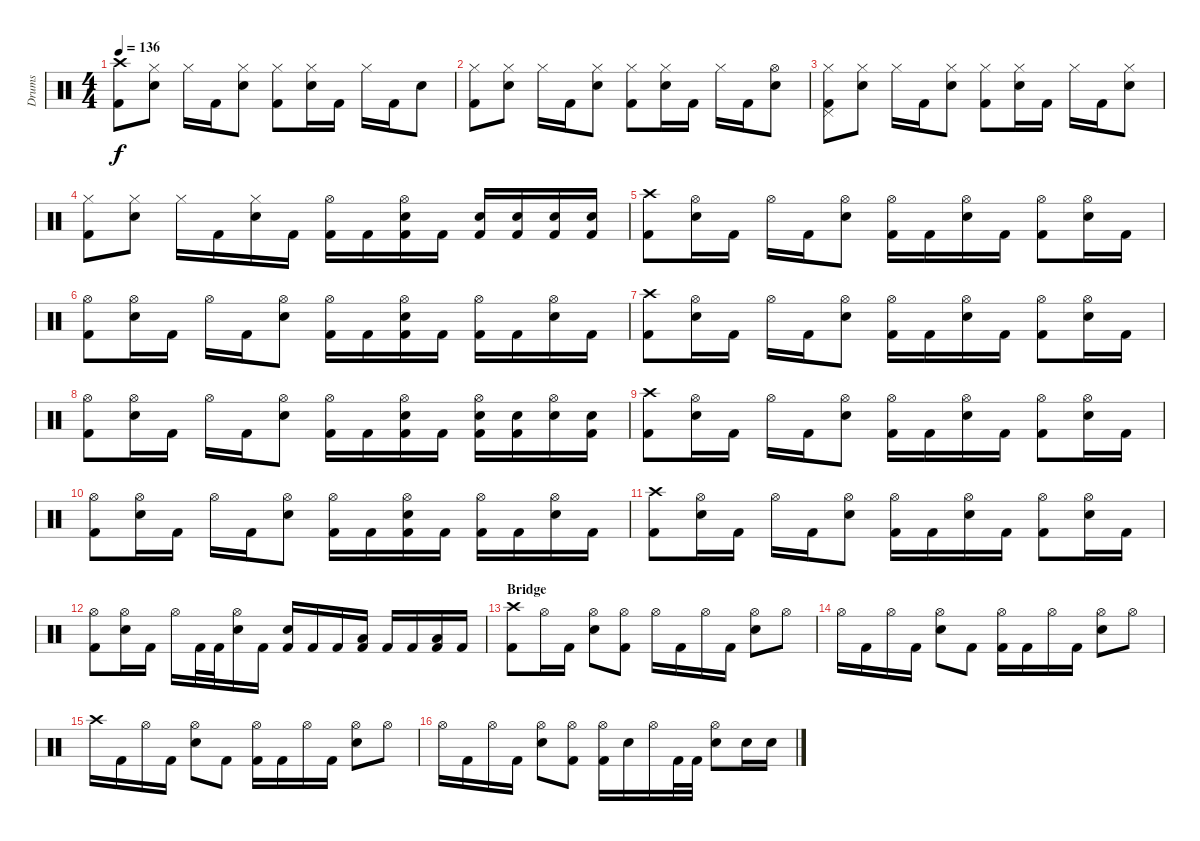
\track ("Drums" "Drums") {instrument percussion}
\staff {score}
\articulation defaults
\ts (4 4)
\tempo 136
\clef neutral
\ks c
("Crash high (hit)" "Kick (hit) 2").8{dy f} ("Hi-Hat (closed)" "Snare (hit) 2").8 "Hi-Hat (closed)".16 "Kick (hit) 2".16 ("Hi-Hat (closed)" "Snare (hit) 2").8 ("Hi-Hat (closed)" "Kick (hit) 2").8 ("Hi-Hat (closed)" "Snare (hit) 2").16 "Kick (hit) 2".16 "Hi-Hat (closed)".16 "Kick (hit) 2".16 "Snare (hit) 2".8 |
("Hi-Hat (closed)" "Kick (hit) 2").8 ("Hi-Hat (closed)" "Snare (hit) 2").8 "Hi-Hat (closed)".16 "Kick (hit) 2".16 ("Hi-Hat (closed)" "Snare (hit) 2").8 ("Hi-Hat (closed)" "Kick (hit) 2").8 ("Hi-Hat (closed)" "Snare (hit) 2").16 "Kick (hit) 2".16 "Hi-Hat (closed)".16 "Kick (hit) 2".16 ("Hi-Hat (open)" "Snare (hit) 2").8 |
("Hi-Hat (closed)" "Pedal Hi-Hat (hit)" "Kick (hit) 2").8 ("Hi-Hat (closed)" "Snare (hit) 2").8 "Hi-Hat (closed)".16 "Kick (hit) 2".16 ("Hi-Hat (closed)" "Snare (hit) 2").8 ("Hi-Hat (closed)" "Kick (hit) 2").8 ("Hi-Hat (closed)" "Snare (hit) 2").16 "Kick (hit) 2".16 "Hi-Hat (closed)".16 "Kick (hit) 2".16 ("Hi-Hat (closed)" "Snare (hit) 2").8 |
("Hi-Hat (closed)" "Kick (hit) 2").8 ("Hi-Hat (closed)" "Snare (hit) 2").8 "Hi-Hat (closed)".16 "Kick (hit) 2".16 ("Hi-Hat (closed)" "Snare (hit) 2").16 "Kick (hit) 2".16 ("Hi-Hat (open)" "Kick (hit) 2").16 "Kick (hit) 2".16 ("Hi-Hat (open)" "Snare (hit) 2" "Kick (hit) 2").16 "Kick (hit) 2".16 ("Snare (hit) 2" "Kick (hit) 2").16 ("Snare (hit) 2" "Kick (hit) 2").16 ("Snare (hit) 2" "Kick (hit) 2").16 ("Snare (hit) 2" "Kick (hit) 2").16 |
("Crash high (hit)" "Kick (hit) 2").8 ("Hi-Hat (open)" "Snare (hit) 2").16 "Kick (hit) 2".16 "Hi-Hat (open)".16 "Kick (hit) 2".16 ("Hi-Hat (open)" "Snare (hit) 2").8 ("Hi-Hat (open)" "Kick (hit) 2").16 "Kick (hit) 2".16 ("Hi-Hat (open)" "Snare (hit) 2").16 "Kick (hit) 2".16 ("Hi-Hat (open)" "Kick (hit) 2").8 ("Hi-Hat (open)" "Snare (hit) 2").16 "Kick (hit) 2".16 |
("Hi-Hat (open)" "Kick (hit) 2").8 ("Hi-Hat (open)" "Snare (hit) 2").16 "Kick (hit) 2".16 "Hi-Hat (open)".16 "Kick (hit) 2".16 ("Hi-Hat (open)" "Snare (hit) 2").8 ("Hi-Hat (open)" "Kick (hit) 2").16 "Kick (hit) 2".16 ("Hi-Hat (open)" "Snare (hit) 2" "Kick (hit) 2").16 "Kick (hit) 2".16 ("Hi-Hat (open)" "Kick (hit) 2").16 "Kick (hit) 2".16 ("Hi-Hat (open)" "Snare (hit) 2").16 "Kick (hit) 2".16 |
("Crash high (hit)" "Kick (hit) 2").8 ("Hi-Hat (open)" "Snare (hit) 2").16 "Kick (hit) 2".16 "Hi-Hat (open)".16 "Kick (hit) 2".16 ("Hi-Hat (open)" "Snare (hit) 2").8 ("Hi-Hat (open)" "Kick (hit) 2").16 "Kick (hit) 2".16 ("Hi-Hat (open)" "Snare (hit) 2").16 "Kick (hit) 2".16 ("Hi-Hat (open)" "Kick (hit) 2").8 ("Hi-Hat (open)" "Snare (hit) 2").16 "Kick (hit) 2".16 |
("Hi-Hat (open)" "Kick (hit) 2").8 ("Hi-Hat (open)" "Snare (hit) 2").16 "Kick (hit) 2".16 "Hi-Hat (open)".16 "Kick (hit) 2".16 ("Hi-Hat (open)" "Snare (hit) 2").8 ("Hi-Hat (open)" "Kick (hit) 2").16 "Kick (hit) 2".16 ("Hi-Hat (open)" "Snare (hit) 2" "Kick (hit) 2").16 "Kick (hit) 2".16 ("Hi-Hat (open)" "Snare (hit) 2" "Kick (hit) 2").16 ("Snare (hit) 2" "Kick (hit) 2").16 ("Hi-Hat (open)" "Snare (hit) 2").16 ("Snare (hit) 2" "Kick (hit) 2").16 |
("Crash high (hit)" "Kick (hit) 2").8 ("Hi-Hat (open)" "Snare (hit) 2").16 "Kick (hit) 2".16 "Hi-Hat (open)".16 "Kick (hit) 2".16 ("Hi-Hat (open)" "Snare (hit) 2").8 ("Hi-Hat (open)" "Kick (hit) 2").16 "Kick (hit) 2".16 ("Hi-Hat (open)" "Snare (hit) 2").16 "Kick (hit) 2".16 ("Hi-Hat (open)" "Kick (hit) 2").8 ("Hi-Hat (open)" "Snare (hit) 2").16 "Kick (hit) 2".16 |
("Hi-Hat (open)" "Kick (hit) 2").8 ("Hi-Hat (open)" "Snare (hit) 2").16 "Kick (hit) 2".16 "Hi-Hat (open)".16 "Kick (hit) 2".16 ("Hi-Hat (open)" "Snare (hit) 2").8 ("Hi-Hat (open)" "Kick (hit) 2").16 "Kick (hit) 2".16 ("Hi-Hat (open)" "Snare (hit) 2" "Kick (hit) 2").16 "Kick (hit) 2".16 ("Hi-Hat (open)" "Kick (hit) 2").16 "Kick (hit) 2".16 ("Hi-Hat (open)" "Snare (hit) 2").16 "Kick (hit) 2".16 |
("Crash high (hit)" "Kick (hit) 2").8 ("Hi-Hat (open)" "Snare (hit) 2").16 "Kick (hit) 2".16 "Hi-Hat (open)".16 "Kick (hit) 2".16 ("Hi-Hat (open)" "Snare (hit) 2").8 ("Hi-Hat (open)" "Kick (hit) 2").16 "Kick (hit) 2".16 ("Hi-Hat (open)" "Snare (hit) 2").16 "Kick (hit) 2".16 ("Hi-Hat (open)" "Kick (hit) 2").8 ("Hi-Hat (open)" "Snare (hit) 2").16 "Kick (hit) 2".16 |
("Hi-Hat (open)" "Kick (hit) 2").8 ("Hi-Hat (open)" "Snare (hit) 2").16 "Kick (hit) 2".16 "Hi-Hat (open)".16 "Kick (hit) 2".32 "Kick (hit) 2".32 ("Hi-Hat (open)" "Snare (hit) 2").16 "Kick (hit) 2".16 ("Snare (hit) 2" "Kick (hit) 2").16 "Kick (hit) 2".16 "Kick (hit) 2".16 ("Low Tom (hit)" "Kick (hit) 2").16 "Kick (hit) 2".16 "Kick (hit) 2".16 ("Low Floor Tom (hit)" "Kick (hit) 2").16 "Kick (hit) 2".16 |
\section ("" "Bridge")
("Crash high (hit)" "Kick (hit) 2").8 "Hi-Hat (open)".16 "Kick (hit) 2".16 ("Hi-Hat (open)" "Snare (hit) 2").8 ("Hi-Hat (open)" "Kick (hit) 2").8 "Hi-Hat (open)".16 "Kick (hit) 2".16 "Hi-Hat (open)".16 "Kick (hit) 2".16 ("Hi-Hat (open)" "Snare (hit) 2").8 "Hi-Hat (open)".8 |
"Hi-Hat (open)".16 "Kick (hit) 2".16 "Hi-Hat (open)".16 "Kick (hit) 2".16 ("Hi-Hat (open)" "Snare (hit) 2").8 "Kick (hit) 2".8 ("Hi-Hat (open)" "Kick (hit) 2").16 "Kick (hit) 2".16 "Hi-Hat (open)".16 "Kick (hit) 2".16 ("Hi-Hat (open)" "Snare (hit) 2").8 "Hi-Hat (open)".8 |
"Crash high (hit)".16 "Kick (hit) 2".16 "Hi-Hat (open)".16 "Kick (hit) 2".16 ("Hi-Hat (open)" "Snare (hit) 2").8 "Kick (hit) 2".8 ("Hi-Hat (open)" "Kick (hit) 2").16 "Kick (hit) 2".16 "Hi-Hat (open)".16 "Kick (hit) 2".16 ("Hi-Hat (open)" "Snare (hit) 2").8 "Hi-Hat (open)".8 |
"Hi-Hat (open)".16 "Kick (hit) 2".16 "Hi-Hat (open)".16 "Kick (hit) 2".16 ("Hi-Hat (open)" "Snare (hit) 2").8 ("Hi-Hat (open)" "Kick (hit) 2").8 ("Hi-Hat (open)" "Kick (hit) 2").16 "Snare (hit) 2".16 "Hi-Hat (open)".16 "Kick (hit) 2".32 "Kick (hit) 2".32 ("Hi-Hat (open)" "Snare (hit) 2").8 "Snare (hit) 2".16 "Snare (hit) 2".16
